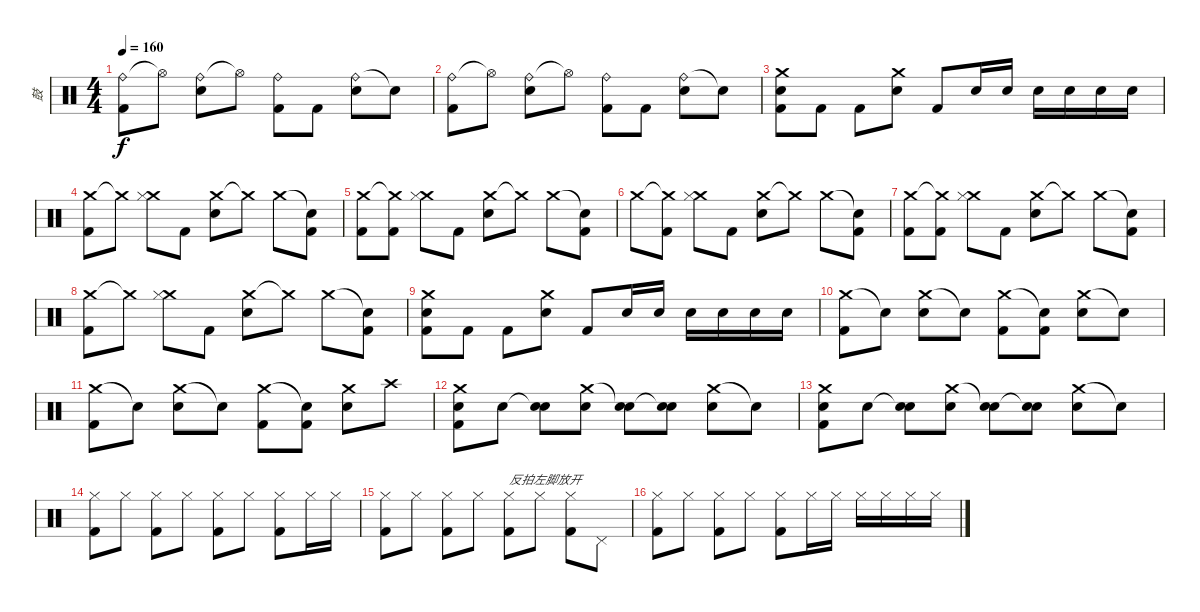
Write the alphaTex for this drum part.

\track ("鼓" "鼓") {instrument percussion}
\staff {score}
\articulation defaults
\ts (4 4)
\tempo 160
\clef neutral
\ks c
("Ride (bell)" "Kick (hit) 2").8{dy f} "Hi-Hat (open)"{t}.8 ("Ride (bell)" "Electric Snare (hit)").8 "Hi-Hat (open)"{t}.8 ("Ride (bell)" "Kick (hit) 2").8 "Kick (hit) 2".8 ("Ride (bell)" "Electric Snare (hit)").8 "Snare (hit)"{t}.8 |
("Ride (bell)" "Kick (hit) 2").8 "Hi-Hat (open)"{t}.8 ("Ride (bell)" "Electric Snare (hit)").8 "Hi-Hat (open)"{t}.8 ("Ride (bell)" "Kick (hit) 2").8 "Kick (hit) 2".8 ("Ride (bell)" "Electric Snare (hit)").8 "Snare (hit)"{t}.8 |
("Crash medium (hit)" "Electric Snare (hit)" "Kick (hit) 2").8 "Kick (hit) 2".8 "Kick (hit) 2".8 ("Crash medium (hit)" "Electric Snare (hit)").8 "Kick (hit) 2".8 "Electric Snare (hit)".16 "Electric Snare (hit)".16 "Electric Snare (hit)".16 "Electric Snare (hit)".16 "Electric Snare (hit)".16 "Electric Snare (hit)".16 |
("Crash medium (hit)" "Kick (hit) 2").8 "Crash medium (hit)"{t}.8 ("Crash medium (hit)" "Hi-Hat (closed)").8 "Kick (hit) 2".8 ("Crash medium (hit)" "Electric Snare (hit)").8 "Crash medium (hit)"{t}.8 "Crash medium (hit)".8 ("Snare (hit)"{t} "Kick (hit) 2").8 |
("Crash medium (hit)" "Kick (hit) 2").8 ("Crash medium (hit)"{t} "Kick (hit) 2").8 ("Crash medium (hit)" "Hi-Hat (closed)").8 "Kick (hit) 2".8 ("Crash medium (hit)" "Electric Snare (hit)").8 "Crash medium (hit)"{t}.8 "Crash medium (hit)".8 ("Snare (hit)"{t} "Kick (hit) 2").8 |
"Crash medium (hit)".8 ("Crash medium (hit)"{t} "Kick (hit) 2").8 ("Crash medium (hit)" "Hi-Hat (closed)").8 "Kick (hit) 2".8 ("Crash medium (hit)" "Electric Snare (hit)").8 "Crash medium (hit)"{t}.8 "Crash medium (hit)".8 ("Snare (hit)"{t} "Kick (hit) 2").8 |
("Crash medium (hit)" "Kick (hit) 2").8 ("Crash medium (hit)"{t} "Kick (hit) 2").8 ("Crash medium (hit)" "Hi-Hat (closed)").8 "Kick (hit) 2".8 ("Crash medium (hit)" "Electric Snare (hit)").8 "Crash medium (hit)"{t}.8 "Crash medium (hit)".8 ("Snare (hit)"{t} "Kick (hit) 2").8 |
("Crash medium (hit)" "Kick (hit) 2").8 "Crash medium (hit)"{t}.8 ("Crash medium (hit)" "Hi-Hat (closed)").8 "Kick (hit) 2".8 ("Crash medium (hit)" "Electric Snare (hit)").8 "Crash medium (hit)"{t}.8 "Crash medium (hit)".8 ("Snare (hit)"{t} "Kick (hit) 2").8 |
("Crash medium (hit)" "Electric Snare (hit)" "Kick (hit) 2").8 "Kick (hit) 2".8 "Kick (hit) 2".8 ("Crash medium (hit)" "Electric Snare (hit)").8 "Kick (hit) 2".8 "Electric Snare (hit)".16 "Electric Snare (hit)".16 "Electric Snare (hit)".16 "Electric Snare (hit)".16 "Electric Snare (hit)".16 "Electric Snare (hit)".16 |
("Crash medium (hit)" "Kick (hit) 2").8 "Snare (hit)"{t}.8 ("Crash medium (hit)" "Electric Snare (hit)").8 "Snare (hit)"{t}.8 ("Crash medium (hit)" "Kick (hit) 2").8 ("Snare (hit)"{t} "Kick (hit) 2").8 ("Crash medium (hit)" "Electric Snare (hit)").8 "Snare (hit)"{t}.8 |
("Crash medium (hit)" "Kick (hit) 2").8 "Snare (hit)"{t}.8 ("Crash medium (hit)" "Electric Snare (hit)").8 "Snare (hit)"{t}.8 ("Crash medium (hit)" "Kick (hit) 2").8 ("Snare (hit)"{t} "Kick (hit) 2").8 ("Crash medium (hit)" "Electric Snare (hit)").8 "Crash high (hit)".8 |
("Crash medium (hit)" "Electric Snare (hit)" "Kick (hit) 2").8 "Electric Snare (hit)".8 ("Snare (hit)"{t} "Electric Snare (hit)").8 ("Crash medium (hit)" "Electric Snare (hit)").8 ("Snare (hit)"{t} "Electric Snare (hit)").8 ("Snare (hit)"{t} "Electric Snare (hit)").8 ("Crash medium (hit)" "Electric Snare (hit)").8 "Snare (hit)"{t}.8 |
("Crash medium (hit)" "Electric Snare (hit)" "Kick (hit) 2").8 "Electric Snare (hit)".8 ("Snare (hit)"{t} "Electric Snare (hit)").8 ("Crash medium (hit)" "Electric Snare (hit)").8 ("Snare (hit)"{t} "Electric Snare (hit)").8 ("Snare (hit)"{t} "Electric Snare (hit)").8 ("Crash medium (hit)" "Electric Snare (hit)").8 "Snare (hit)"{t}.8 |
("Hi-Hat (closed)" "Kick (hit) 2").8 "Hi-Hat (closed)".8 ("Hi-Hat (closed)" "Kick (hit) 2").8 "Hi-Hat (closed)".8 ("Hi-Hat (closed)" "Kick (hit) 2").8 "Hi-Hat (closed)".8 ("Hi-Hat (closed)" "Kick (hit) 2").8 "Hi-Hat (closed)".16 "Hi-Hat (closed)".16 |
("Hi-Hat (closed)" "Kick (hit) 2").8 "Hi-Hat (closed)".8 ("Hi-Hat (closed)" "Kick (hit) 2").8 "Hi-Hat (closed)".8 ("Hi-Hat (closed)" "Kick (hit) 2").8{txt "反拍左脚放开"} "Hi-Hat (closed)".8 ("Hi-Hat (closed)" "Kick (hit) 2").8 "Pedal Hi-Hat (hit)".8 |
("Hi-Hat (closed)" "Kick (hit) 2").8 "Hi-Hat (closed)".8 ("Hi-Hat (closed)" "Kick (hit) 2").8 "Hi-Hat (closed)".8 ("Hi-Hat (closed)" "Kick (hit) 2").8 "Hi-Hat (closed)".16 "Hi-Hat (closed)".16 "Hi-Hat (closed)".16 "Hi-Hat (closed)".16 "Hi-Hat (closed)".16 "Hi-Hat (closed)".16
